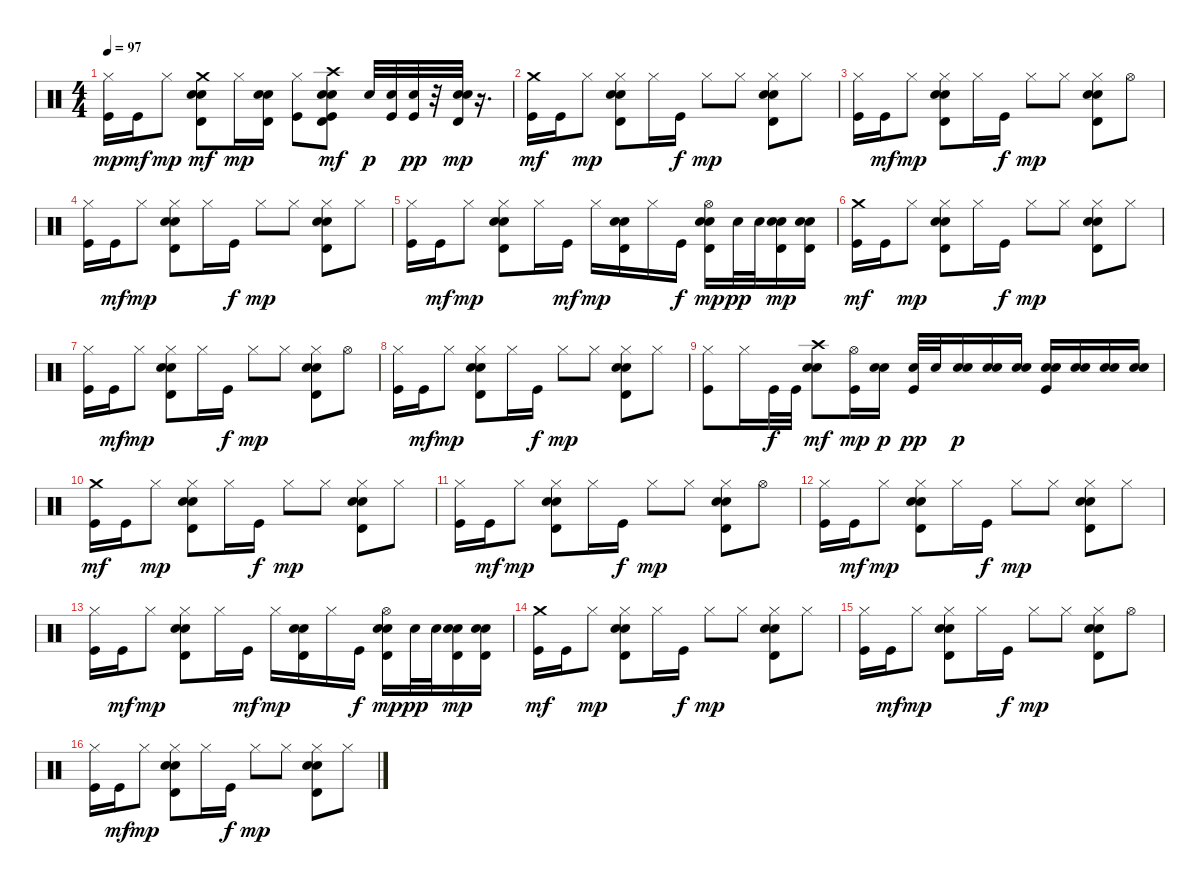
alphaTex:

\track "" {instrument percussion}
\staff {score}
\articulation defaults
\ts (4 4)
\tempo 97
\clef neutral
\ks c
("Kick (hit)" "Hi-Hat (closed)").16{dy mp} "Kick (hit)".16{dy mf} "Hi-Hat (closed)".8{dy mp} ("Snare (hit) 2" "Electric Snare (hit)" "Timbale high (hit)" "Crash medium (hit)").8{dy mf} "Hi-Hat (closed)".16{dy mp} ("Snare (hit) 2" "Electric Snare (hit)" "Timbale high (hit)").16 ("Kick (hit)" "Hi-Hat (closed)").8 ("Kick (hit)" "Snare (hit) 2" "Electric Snare (hit)" "Timbale high (hit)" "Crash high (hit)").8{dy mf} "Snare (hit) 2".32{dy p} ("Kick (hit)" "Snare (hit) 2").32 ("Kick (hit)" "Snare (hit) 2").32{dy pp} r.32 ("Snare (hit) 2" "Electric Snare (hit)" "Timbale high (hit)").32{dy mp} r.16{d} |
\section ("" "")
("Kick (hit)" "Crash medium (hit)").16{dy mf} "Kick (hit)".16 "Hi-Hat (closed)".8{dy mp} ("Snare (hit) 2" "Electric Snare (hit)" "Timbale high (hit)" "Hi-Hat (closed)").8 "Hi-Hat (closed)".16 "Kick (hit)".16{dy f} "Hi-Hat (closed)".8{dy mp} "Hi-Hat (closed)".8 ("Snare (hit) 2" "Electric Snare (hit)" "Timbale high (hit)" "Hi-Hat (closed)").8 "Hi-Hat (closed)".8 |
("Kick (hit)" "Hi-Hat (closed)").16 "Kick (hit)".16{dy mf} "Hi-Hat (closed)".8{dy mp} ("Snare (hit) 2" "Electric Snare (hit)" "Timbale high (hit)" "Hi-Hat (closed)").8 "Hi-Hat (closed)".16 "Kick (hit)".16{dy f} "Hi-Hat (closed)".8{dy mp} "Hi-Hat (closed)".8 ("Snare (hit) 2" "Electric Snare (hit)" "Timbale high (hit)" "Hi-Hat (closed)").8 "Hi-Hat (open)".8 |
("Kick (hit)" "Hi-Hat (closed)").16 "Kick (hit)".16{dy mf} "Hi-Hat (closed)".8{dy mp} ("Snare (hit) 2" "Electric Snare (hit)" "Timbale high (hit)" "Hi-Hat (closed)").8 "Hi-Hat (closed)".16 "Kick (hit)".16{dy f} "Hi-Hat (closed)".8{dy mp} "Hi-Hat (closed)".8 ("Snare (hit) 2" "Electric Snare (hit)" "Timbale high (hit)" "Hi-Hat (closed)").8 "Hi-Hat (closed)".8 |
("Kick (hit)" "Hi-Hat (closed)").16 "Kick (hit)".16{dy mf} "Hi-Hat (closed)".8{dy mp} ("Snare (hit) 2" "Electric Snare (hit)" "Timbale high (hit)" "Hi-Hat (closed)").8 "Hi-Hat (closed)".16 "Kick (hit)".16{dy mf} "Hi-Hat (closed)".16{dy mp} ("Snare (hit) 2" "Electric Snare (hit)" "Timbale high (hit)").16 "Hi-Hat (closed)".16 "Kick (hit)".16{dy f} ("Snare (hit) 2" "Electric Snare (hit)" "Timbale high (hit)" "Hi-Hat (open)").16{dy mp} "Snare (hit) 2".32{dy pp} "Snare (hit) 2".32 ("Snare (hit) 2" "Electric Snare (hit)" "Timbale high (hit)").16{dy mp} ("Snare (hit) 2" "Electric Snare (hit)" "Timbale high (hit)").16 |
\section ("" "")
("Kick (hit)" "Crash medium (hit)").16{dy mf} "Kick (hit)".16 "Hi-Hat (closed)".8{dy mp} ("Snare (hit) 2" "Electric Snare (hit)" "Timbale high (hit)" "Hi-Hat (closed)").8 "Hi-Hat (closed)".16 "Kick (hit)".16{dy f} "Hi-Hat (closed)".8{dy mp} "Hi-Hat (closed)".8 ("Snare (hit) 2" "Electric Snare (hit)" "Timbale high (hit)" "Hi-Hat (closed)").8 "Hi-Hat (closed)".8 |
("Kick (hit)" "Hi-Hat (closed)").16 "Kick (hit)".16{dy mf} "Hi-Hat (closed)".8{dy mp} ("Snare (hit) 2" "Electric Snare (hit)" "Timbale high (hit)" "Hi-Hat (closed)").8 "Hi-Hat (closed)".16 "Kick (hit)".16{dy f} "Hi-Hat (closed)".8{dy mp} "Hi-Hat (closed)".8 ("Snare (hit) 2" "Electric Snare (hit)" "Timbale high (hit)" "Hi-Hat (closed)").8 "Hi-Hat (open)".8 |
("Kick (hit)" "Hi-Hat (closed)").16 "Kick (hit)".16{dy mf} "Hi-Hat (closed)".8{dy mp} ("Snare (hit) 2" "Electric Snare (hit)" "Timbale high (hit)" "Hi-Hat (closed)").8 "Hi-Hat (closed)".16 "Kick (hit)".16{dy f} "Hi-Hat (closed)".8{dy mp} "Hi-Hat (closed)".8 ("Snare (hit) 2" "Electric Snare (hit)" "Timbale high (hit)" "Hi-Hat (closed)").8 "Hi-Hat (closed)".8 |
("Kick (hit)" "Hi-Hat (closed)").8 "Hi-Hat (closed)".16 "Kick (hit)".32{dy f} "Kick (hit)".32 ("Snare (hit) 2" "Electric Snare (hit)" "Crash high (hit)").8{dy mf} ("Kick (hit)" "Hi-Hat (open)").16{dy mp} ("Snare (hit) 2" "Electric Snare (hit)").16{dy p} ("Kick (hit)" "Snare (hit) 2").32{dy pp} "Snare (hit) 2".32 ("Snare (hit) 2" "Electric Snare (hit)").16{dy p} ("Snare (hit) 2" "Electric Snare (hit)").16 ("Snare (hit) 2" "Electric Snare (hit)").16 ("Kick (hit)" "Snare (hit) 2" "Electric Snare (hit)").16 ("Snare (hit) 2" "Electric Snare (hit)").16 ("Snare (hit) 2" "Electric Snare (hit)").16 ("Snare (hit) 2" "Electric Snare (hit)").16 |
\section ("" "")
("Kick (hit)" "Crash medium (hit)").16{dy mf} "Kick (hit)".16 "Hi-Hat (closed)".8{dy mp} ("Snare (hit) 2" "Electric Snare (hit)" "Timbale high (hit)" "Hi-Hat (closed)").8 "Hi-Hat (closed)".16 "Kick (hit)".16{dy f} "Hi-Hat (closed)".8{dy mp} "Hi-Hat (closed)".8 ("Snare (hit) 2" "Electric Snare (hit)" "Timbale high (hit)" "Hi-Hat (closed)").8 "Hi-Hat (closed)".8 |
("Kick (hit)" "Hi-Hat (closed)").16 "Kick (hit)".16{dy mf} "Hi-Hat (closed)".8{dy mp} ("Snare (hit) 2" "Electric Snare (hit)" "Timbale high (hit)" "Hi-Hat (closed)").8 "Hi-Hat (closed)".16 "Kick (hit)".16{dy f} "Hi-Hat (closed)".8{dy mp} "Hi-Hat (closed)".8 ("Snare (hit) 2" "Electric Snare (hit)" "Timbale high (hit)" "Hi-Hat (closed)").8 "Hi-Hat (open)".8 |
("Kick (hit)" "Hi-Hat (closed)").16 "Kick (hit)".16{dy mf} "Hi-Hat (closed)".8{dy mp} ("Snare (hit) 2" "Electric Snare (hit)" "Timbale high (hit)" "Hi-Hat (closed)").8 "Hi-Hat (closed)".16 "Kick (hit)".16{dy f} "Hi-Hat (closed)".8{dy mp} "Hi-Hat (closed)".8 ("Snare (hit) 2" "Electric Snare (hit)" "Timbale high (hit)" "Hi-Hat (closed)").8 "Hi-Hat (closed)".8 |
("Kick (hit)" "Hi-Hat (closed)").16 "Kick (hit)".16{dy mf} "Hi-Hat (closed)".8{dy mp} ("Snare (hit) 2" "Electric Snare (hit)" "Timbale high (hit)" "Hi-Hat (closed)").8 "Hi-Hat (closed)".16 "Kick (hit)".16{dy mf} "Hi-Hat (closed)".16{dy mp} ("Snare (hit) 2" "Electric Snare (hit)" "Timbale high (hit)").16 "Hi-Hat (closed)".16 "Kick (hit)".16{dy f} ("Snare (hit) 2" "Electric Snare (hit)" "Timbale high (hit)" "Hi-Hat (open)").16{dy mp} "Snare (hit) 2".32{dy pp} "Snare (hit) 2".32 ("Snare (hit) 2" "Electric Snare (hit)" "Timbale high (hit)").16{dy mp} ("Snare (hit) 2" "Electric Snare (hit)" "Timbale high (hit)").16 |
\section ("" "")
("Kick (hit)" "Crash medium (hit)").16{dy mf} "Kick (hit)".16 "Hi-Hat (closed)".8{dy mp} ("Snare (hit) 2" "Electric Snare (hit)" "Timbale high (hit)" "Hi-Hat (closed)").8 "Hi-Hat (closed)".16 "Kick (hit)".16{dy f} "Hi-Hat (closed)".8{dy mp} "Hi-Hat (closed)".8 ("Snare (hit) 2" "Electric Snare (hit)" "Timbale high (hit)" "Hi-Hat (closed)").8 "Hi-Hat (closed)".8 |
("Kick (hit)" "Hi-Hat (closed)").16 "Kick (hit)".16{dy mf} "Hi-Hat (closed)".8{dy mp} ("Snare (hit) 2" "Electric Snare (hit)" "Timbale high (hit)" "Hi-Hat (closed)").8 "Hi-Hat (closed)".16 "Kick (hit)".16{dy f} "Hi-Hat (closed)".8{dy mp} "Hi-Hat (closed)".8 ("Snare (hit) 2" "Electric Snare (hit)" "Timbale high (hit)" "Hi-Hat (closed)").8 "Hi-Hat (open)".8 |
("Kick (hit)" "Hi-Hat (closed)").16 "Kick (hit)".16{dy mf} "Hi-Hat (closed)".8{dy mp} ("Snare (hit) 2" "Electric Snare (hit)" "Timbale high (hit)" "Hi-Hat (closed)").8 "Hi-Hat (closed)".16 "Kick (hit)".16{dy f} "Hi-Hat (closed)".8{dy mp} "Hi-Hat (closed)".8 ("Snare (hit) 2" "Electric Snare (hit)" "Timbale high (hit)" "Hi-Hat (closed)").8 "Hi-Hat (closed)".8
